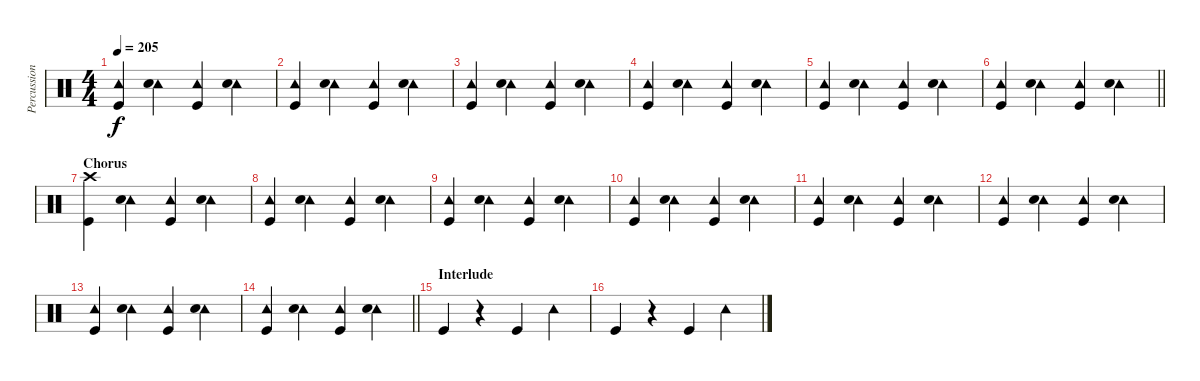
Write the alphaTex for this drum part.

\track ("Percussion" "Percussion") {instrument percussion}
\staff {score}
\articulation defaults
\ts (4 4)
\tempo 205
\clef neutral
\ks c
("Tambourine (hit)" "Kick (hit)").4{dy f} ("Tambourine (hit)" "Electric Snare (hit)").4 ("Tambourine (hit)" "Kick (hit)").4 ("Tambourine (hit)" "Electric Snare (hit)").4 |
("Tambourine (hit)" "Kick (hit)").4 ("Tambourine (hit)" "Electric Snare (hit)").4 ("Tambourine (hit)" "Kick (hit)").4 ("Tambourine (hit)" "Electric Snare (hit)").4 |
("Tambourine (hit)" "Kick (hit)").4 ("Tambourine (hit)" "Electric Snare (hit)").4 ("Tambourine (hit)" "Kick (hit)").4 ("Tambourine (hit)" "Electric Snare (hit)").4 |
("Tambourine (hit)" "Kick (hit)").4 ("Tambourine (hit)" "Electric Snare (hit)").4 ("Tambourine (hit)" "Kick (hit)").4 ("Tambourine (hit)" "Electric Snare (hit)").4 |
("Tambourine (hit)" "Kick (hit)").4 ("Tambourine (hit)" "Electric Snare (hit)").4 ("Tambourine (hit)" "Kick (hit)").4 ("Tambourine (hit)" "Electric Snare (hit)").4 |
\barLineRight lightlight
("Tambourine (hit)" "Kick (hit)").4 ("Tambourine (hit)" "Electric Snare (hit)").4 ("Tambourine (hit)" "Kick (hit)").4 ("Tambourine (hit)" "Electric Snare (hit)").4 |
\section ("" "Chorus")
("Crash high (hit)" "Kick (hit)").4 ("Tambourine (hit)" "Electric Snare (hit)").4 ("Tambourine (hit)" "Kick (hit)").4 ("Tambourine (hit)" "Electric Snare (hit)").4 |
("Tambourine (hit)" "Kick (hit)").4 ("Tambourine (hit)" "Electric Snare (hit)").4 ("Tambourine (hit)" "Kick (hit)").4 ("Tambourine (hit)" "Electric Snare (hit)").4 |
("Tambourine (hit)" "Kick (hit)").4 ("Tambourine (hit)" "Electric Snare (hit)").4 ("Tambourine (hit)" "Kick (hit)").4 ("Tambourine (hit)" "Electric Snare (hit)").4 |
("Tambourine (hit)" "Kick (hit)").4 ("Tambourine (hit)" "Electric Snare (hit)").4 ("Tambourine (hit)" "Kick (hit)").4 ("Tambourine (hit)" "Electric Snare (hit)").4 |
("Tambourine (hit)" "Kick (hit)").4 ("Tambourine (hit)" "Electric Snare (hit)").4 ("Tambourine (hit)" "Kick (hit)").4 ("Tambourine (hit)" "Electric Snare (hit)").4 |
("Tambourine (hit)" "Kick (hit)").4 ("Tambourine (hit)" "Electric Snare (hit)").4 ("Tambourine (hit)" "Kick (hit)").4 ("Tambourine (hit)" "Electric Snare (hit)").4 |
("Tambourine (hit)" "Kick (hit)").4 ("Tambourine (hit)" "Electric Snare (hit)").4 ("Tambourine (hit)" "Kick (hit)").4 ("Tambourine (hit)" "Electric Snare (hit)").4 |
\barLineRight lightlight
("Tambourine (hit)" "Kick (hit)").4 ("Tambourine (hit)" "Electric Snare (hit)").4 ("Tambourine (hit)" "Kick (hit)").4 ("Tambourine (hit)" "Electric Snare (hit)").4 |
\section ("" "Interlude")
"Kick (hit)".4 r.4 "Kick (hit)".4 "Tambourine (hit)".4 |
"Kick (hit)".4 r.4 "Kick (hit)".4 "Tambourine (hit)".4
